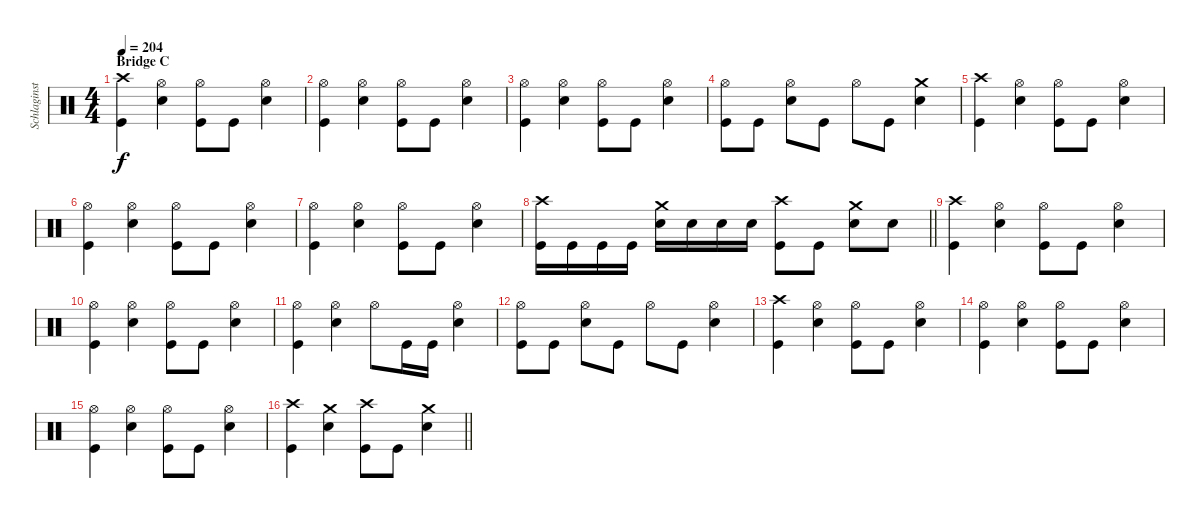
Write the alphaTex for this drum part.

\track ("Schlaginstrumente - Auswahl" "Schlaginst") {instrument percussion}
\staff {score}
\articulation defaults
\ts (4 4)
\section ("" "Bridge C")
\tempo 204
\clef neutral
\ks c
("Kick (hit)" "Crash high (hit)").4{dy f} ("Snare (hit) 2" "Hi-Hat (open)").4 ("Kick (hit)" "Hi-Hat (open)").8 "Kick (hit)".8 ("Snare (hit) 2" "Hi-Hat (open)").4 |
("Kick (hit)" "Hi-Hat (open)").4 ("Snare (hit) 2" "Hi-Hat (open)").4 ("Kick (hit)" "Hi-Hat (open)").8 "Kick (hit)".8 ("Snare (hit) 2" "Hi-Hat (open)").4 |
("Kick (hit)" "Hi-Hat (open)").4 ("Snare (hit) 2" "Hi-Hat (open)").4 ("Kick (hit)" "Hi-Hat (open)").8 "Kick (hit)".8 ("Snare (hit) 2" "Hi-Hat (open)").4 |
("Hi-Hat (open)" "Kick (hit)").8 "Kick (hit)".8 ("Snare (hit) 2" "Hi-Hat (open)").8 "Kick (hit)".8 "Hi-Hat (open)".8 "Kick (hit)".8 ("Snare (hit) 2" "Crash medium (hit)").4 |
("Kick (hit)" "Crash high (hit)").4 ("Snare (hit) 2" "Hi-Hat (open)").4 ("Kick (hit)" "Hi-Hat (open)").8 "Kick (hit)".8 ("Snare (hit) 2" "Hi-Hat (open)").4 |
("Kick (hit)" "Hi-Hat (open)").4 ("Snare (hit) 2" "Hi-Hat (open)").4 ("Kick (hit)" "Hi-Hat (open)").8 "Kick (hit)".8 ("Snare (hit) 2" "Hi-Hat (open)").4 |
("Kick (hit)" "Hi-Hat (open)").4 ("Snare (hit) 2" "Hi-Hat (open)").4 ("Kick (hit)" "Hi-Hat (open)").8 "Kick (hit)".8 ("Snare (hit) 2" "Hi-Hat (open)").4 |
\barLineRight lightlight
("Crash high (hit)" "Kick (hit)").16 "Kick (hit)".16 "Kick (hit)".16 "Kick (hit)".16 ("Snare (hit) 2" "Crash medium (hit)").16 "Snare (hit) 2".16 "Snare (hit) 2".16 "Snare (hit) 2".16 ("Kick (hit)" "Crash high (hit)").8 "Kick (hit)".8 ("Snare (hit) 2" "Crash medium (hit)").8 "Snare (hit) 2".8 |
("Kick (hit)" "Crash high (hit)").4 ("Snare (hit) 2" "Hi-Hat (open)").4 ("Kick (hit)" "Hi-Hat (open)").8 "Kick (hit)".8 ("Snare (hit) 2" "Hi-Hat (open)").4 |
("Kick (hit)" "Hi-Hat (open)").4 ("Snare (hit) 2" "Hi-Hat (open)").4 ("Kick (hit)" "Hi-Hat (open)").8 "Kick (hit)".8 ("Snare (hit) 2" "Hi-Hat (open)").4 |
("Kick (hit)" "Hi-Hat (open)").4 ("Snare (hit) 2" "Hi-Hat (open)").4 "Hi-Hat (open)".8 "Kick (hit)".16 "Kick (hit)".16 ("Snare (hit) 2" "Hi-Hat (open)").4 |
("Hi-Hat (open)" "Kick (hit)").8 "Kick (hit)".8 ("Snare (hit) 2" "Hi-Hat (open)").8 "Kick (hit)".8 "Hi-Hat (open)".8 "Kick (hit)".8 ("Snare (hit) 2" "Hi-Hat (open)").4 |
("Kick (hit)" "Crash high (hit)").4 ("Snare (hit) 2" "Hi-Hat (open)").4 ("Kick (hit)" "Hi-Hat (open)").8 "Kick (hit)".8 ("Snare (hit) 2" "Hi-Hat (open)").4 |
("Kick (hit)" "Hi-Hat (open)").4 ("Snare (hit) 2" "Hi-Hat (open)").4 ("Kick (hit)" "Hi-Hat (open)").8 "Kick (hit)".8 ("Snare (hit) 2" "Hi-Hat (open)").4 |
("Kick (hit)" "Hi-Hat (open)").4 ("Snare (hit) 2" "Hi-Hat (open)").4 ("Kick (hit)" "Hi-Hat (open)").8 "Kick (hit)".8 ("Snare (hit) 2" "Hi-Hat (open)").4 |
\barLineRight lightlight
("Kick (hit)" "Crash high (hit)").4 ("Snare (hit) 2" "Crash medium (hit)").4 ("Kick (hit)" "Crash high (hit)").8 "Kick (hit)".8 ("Snare (hit) 2" "Crash medium (hit)").4
